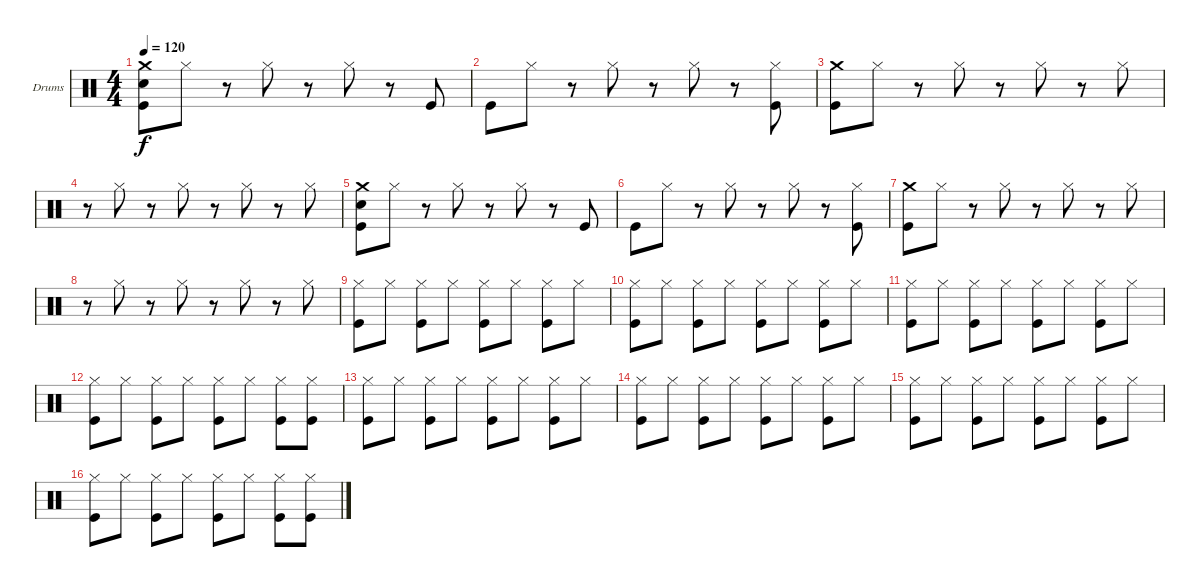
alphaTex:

\bracketExtendMode groupsimilarinstruments
\firstSystemTrackNameOrientation horizontal
\otherSystemsTrackNameOrientation horizontal
\track ("Ударные" "Drums") {instrument percussion}
\staff {score}
\articulation defaults
\ts (4 4)
\tempo 120
\clef neutral
\ks c
("Crash medium (hit)" "Snare (hit) 2" "Kick (hit)").8{dy f} "Hi-Hat (closed)".8 r.8 "Hi-Hat (closed)".8 r.8 "Hi-Hat (closed)".8 r.8 "Kick (hit)".8 |
"Kick (hit)".8 "Hi-Hat (closed)".8 r.8 "Hi-Hat (closed)".8 r.8 "Hi-Hat (closed)".8 r.8 ("Hi-Hat (closed)" "Kick (hit)").8 |
("Crash medium (hit)" "Kick (hit)").8 "Hi-Hat (closed)".8 r.8 "Hi-Hat (closed)".8 r.8 "Hi-Hat (closed)".8 r.8 "Hi-Hat (closed)".8 |
r.8 "Hi-Hat (closed)".8 r.8 "Hi-Hat (closed)".8 r.8 "Hi-Hat (closed)".8 r.8 "Hi-Hat (closed)".8 |
("Crash medium (hit)" "Snare (hit) 2" "Kick (hit)").8 "Hi-Hat (closed)".8 r.8 "Hi-Hat (closed)".8 r.8 "Hi-Hat (closed)".8 r.8 "Kick (hit)".8 |
"Kick (hit)".8 "Hi-Hat (closed)".8 r.8 "Hi-Hat (closed)".8 r.8 "Hi-Hat (closed)".8 r.8 ("Hi-Hat (closed)" "Kick (hit)").8 |
("Crash medium (hit)" "Kick (hit)").8 "Hi-Hat (closed)".8 r.8 "Hi-Hat (closed)".8 r.8 "Hi-Hat (closed)".8 r.8 "Hi-Hat (closed)".8 |
r.8 "Hi-Hat (closed)".8 r.8 "Hi-Hat (closed)".8 r.8 "Hi-Hat (closed)".8 r.8 "Hi-Hat (closed)".8 |
("Hi-Hat (closed)" "Kick (hit)").8 "Hi-Hat (closed)".8 ("Hi-Hat (closed)" "Kick (hit)").8 "Hi-Hat (closed)".8 ("Hi-Hat (closed)" "Kick (hit)").8 "Hi-Hat (closed)".8 ("Hi-Hat (closed)" "Kick (hit)").8 "Hi-Hat (closed)".8 |
("Hi-Hat (closed)" "Kick (hit)").8 "Hi-Hat (closed)".8 ("Hi-Hat (closed)" "Kick (hit)").8 "Hi-Hat (closed)".8 ("Hi-Hat (closed)" "Kick (hit)").8 "Hi-Hat (closed)".8 ("Hi-Hat (closed)" "Kick (hit)").8 "Hi-Hat (closed)".8 |
("Hi-Hat (closed)" "Kick (hit)").8 "Hi-Hat (closed)".8 ("Hi-Hat (closed)" "Kick (hit)").8 "Hi-Hat (closed)".8 ("Hi-Hat (closed)" "Kick (hit)").8 "Hi-Hat (closed)".8 ("Hi-Hat (closed)" "Kick (hit)").8 "Hi-Hat (closed)".8 |
("Hi-Hat (closed)" "Kick (hit)").8 "Hi-Hat (closed)".8 ("Hi-Hat (closed)" "Kick (hit)").8 "Hi-Hat (closed)".8 ("Hi-Hat (closed)" "Kick (hit)").8 "Hi-Hat (closed)".8 ("Hi-Hat (closed)" "Kick (hit)").8 ("Hi-Hat (closed)" "Kick (hit)").8 |
("Hi-Hat (closed)" "Kick (hit)").8 "Hi-Hat (closed)".8 ("Hi-Hat (closed)" "Kick (hit)").8 "Hi-Hat (closed)".8 ("Hi-Hat (closed)" "Kick (hit)").8 "Hi-Hat (closed)".8 ("Hi-Hat (closed)" "Kick (hit)").8 "Hi-Hat (closed)".8 |
("Hi-Hat (closed)" "Kick (hit)").8 "Hi-Hat (closed)".8 ("Hi-Hat (closed)" "Kick (hit)").8 "Hi-Hat (closed)".8 ("Hi-Hat (closed)" "Kick (hit)").8 "Hi-Hat (closed)".8 ("Hi-Hat (closed)" "Kick (hit)").8 "Hi-Hat (closed)".8 |
("Hi-Hat (closed)" "Kick (hit)").8 "Hi-Hat (closed)".8 ("Hi-Hat (closed)" "Kick (hit)").8 "Hi-Hat (closed)".8 ("Hi-Hat (closed)" "Kick (hit)").8 "Hi-Hat (closed)".8 ("Hi-Hat (closed)" "Kick (hit)").8 "Hi-Hat (closed)".8 |
("Hi-Hat (closed)" "Kick (hit)").8 "Hi-Hat (closed)".8 ("Hi-Hat (closed)" "Kick (hit)").8 "Hi-Hat (closed)".8 ("Hi-Hat (closed)" "Kick (hit)").8 "Hi-Hat (closed)".8 ("Hi-Hat (closed)" "Kick (hit)").8 ("Hi-Hat (closed)" "Kick (hit)").8
